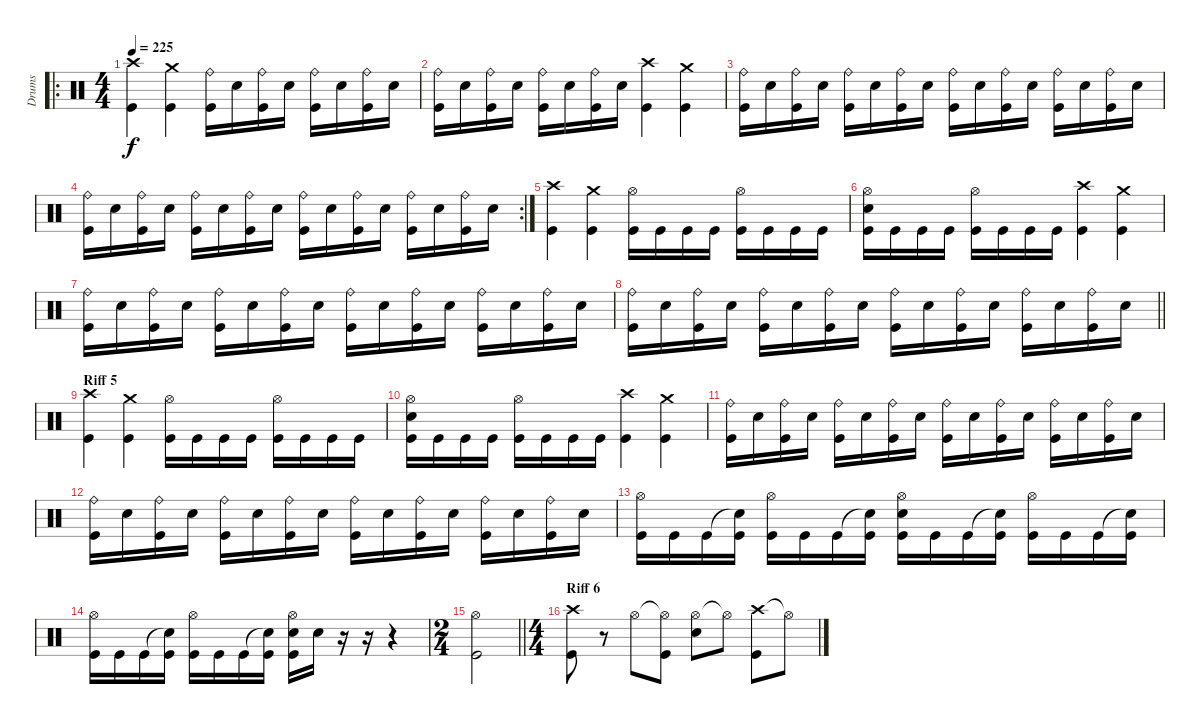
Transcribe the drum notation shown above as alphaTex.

\track ("Drums" "Drums") {instrument percussion}
\staff {score}
\articulation defaults
\ro
\ts (4 4)
\tempo 225
\clef neutral
\ks c
("Crash high (hit)" "Kick (hit)").4{dy f} ("Crash medium (hit)" "Kick (hit)").4 ("Ride (bell)" "Kick (hit)").16 "Electric Snare (hit)".16 ("Ride (bell)" "Kick (hit)").16 "Electric Snare (hit)".16 ("Ride (bell)" "Kick (hit)").16 "Electric Snare (hit)".16 ("Ride (bell)" "Kick (hit)").16 "Electric Snare (hit)".16 |
("Ride (bell)" "Kick (hit)").16 "Electric Snare (hit)".16 ("Ride (bell)" "Kick (hit)").16 "Electric Snare (hit)".16 ("Ride (bell)" "Kick (hit)").16 "Electric Snare (hit)".16 ("Ride (bell)" "Kick (hit)").16 "Electric Snare (hit)".16 ("Crash high (hit)" "Kick (hit)").4 ("Crash medium (hit)" "Kick (hit)").4 |
("Ride (bell)" "Kick (hit)").16 "Electric Snare (hit)".16 ("Ride (bell)" "Kick (hit)").16 "Electric Snare (hit)".16 ("Ride (bell)" "Kick (hit)").16 "Electric Snare (hit)".16 ("Ride (bell)" "Kick (hit)").16 "Electric Snare (hit)".16 ("Ride (bell)" "Kick (hit)").16 "Electric Snare (hit)".16 ("Ride (bell)" "Kick (hit)").16 "Electric Snare (hit)".16 ("Ride (bell)" "Kick (hit)").16 "Electric Snare (hit)".16 ("Ride (bell)" "Kick (hit)").16 "Electric Snare (hit)".16 |
\rc 2
("Ride (bell)" "Kick (hit)").16 "Electric Snare (hit)".16 ("Ride (bell)" "Kick (hit)").16 "Electric Snare (hit)".16 ("Ride (bell)" "Kick (hit)").16 "Electric Snare (hit)".16 ("Ride (bell)" "Kick (hit)").16 "Electric Snare (hit)".16 ("Ride (bell)" "Kick (hit)").16 "Electric Snare (hit)".16 ("Ride (bell)" "Kick (hit)").16 "Electric Snare (hit)".16 ("Ride (bell)" "Kick (hit)").16 "Electric Snare (hit)".16 ("Ride (bell)" "Kick (hit)").16 "Electric Snare (hit)".16 |
("Crash high (hit)" "Kick (hit)").4 ("Crash medium (hit)" "Kick (hit)").4 ("Hi-Hat (open)" "Kick (hit)").16 "Kick (hit)".16 "Kick (hit)".16 "Kick (hit)".16 ("Hi-Hat (open)" "Kick (hit)").16 "Kick (hit)".16 "Kick (hit)".16 "Kick (hit)".16 |
("Hi-Hat (open)" "Electric Snare (hit)" "Kick (hit)").16 "Kick (hit)".16 "Kick (hit)".16 "Kick (hit)".16 ("Hi-Hat (open)" "Kick (hit)").16 "Kick (hit)".16 "Kick (hit)".16 "Kick (hit)".16 ("Crash high (hit)" "Kick (hit)").4 ("Crash medium (hit)" "Kick (hit)").4 |
("Ride (bell)" "Kick (hit)").16 "Electric Snare (hit)".16 ("Ride (bell)" "Kick (hit)").16 "Electric Snare (hit)".16 ("Ride (bell)" "Kick (hit)").16 "Electric Snare (hit)".16 ("Ride (bell)" "Kick (hit)").16 "Electric Snare (hit)".16 ("Ride (bell)" "Kick (hit)").16 "Electric Snare (hit)".16 ("Ride (bell)" "Kick (hit)").16 "Electric Snare (hit)".16 ("Ride (bell)" "Kick (hit)").16 "Electric Snare (hit)".16 ("Ride (bell)" "Kick (hit)").16 "Electric Snare (hit)".16 |
\barLineRight lightlight
("Ride (bell)" "Kick (hit)").16 "Electric Snare (hit)".16 ("Ride (bell)" "Kick (hit)").16 "Electric Snare (hit)".16 ("Ride (bell)" "Kick (hit)").16 "Electric Snare (hit)".16 ("Ride (bell)" "Kick (hit)").16 "Electric Snare (hit)".16 ("Ride (bell)" "Kick (hit)").16 "Electric Snare (hit)".16 ("Ride (bell)" "Kick (hit)").16 "Electric Snare (hit)".16 ("Ride (bell)" "Kick (hit)").16 "Electric Snare (hit)".16 ("Ride (bell)" "Kick (hit)").16 "Electric Snare (hit)".16 |
\section ("" "Riff 5")
("Crash high (hit)" "Kick (hit)").4 ("Crash medium (hit)" "Kick (hit)").4 ("Hi-Hat (open)" "Kick (hit)").16 "Kick (hit)".16 "Kick (hit)".16 "Kick (hit)".16 ("Hi-Hat (open)" "Kick (hit)").16 "Kick (hit)".16 "Kick (hit)".16 "Kick (hit)".16 |
("Hi-Hat (open)" "Electric Snare (hit)" "Kick (hit)").16 "Kick (hit)".16 "Kick (hit)".16 "Kick (hit)".16 ("Hi-Hat (open)" "Kick (hit)").16 "Kick (hit)".16 "Kick (hit)".16 "Kick (hit)".16 ("Crash high (hit)" "Kick (hit)").4 ("Crash medium (hit)" "Kick (hit)").4 |
("Ride (bell)" "Kick (hit)").16 "Electric Snare (hit)".16 ("Ride (bell)" "Kick (hit)").16 "Electric Snare (hit)".16 ("Ride (bell)" "Kick (hit)").16 "Electric Snare (hit)".16 ("Ride (bell)" "Kick (hit)").16 "Electric Snare (hit)".16 ("Ride (bell)" "Kick (hit)").16 "Electric Snare (hit)".16 ("Ride (bell)" "Kick (hit)").16 "Electric Snare (hit)".16 ("Ride (bell)" "Kick (hit)").16 "Electric Snare (hit)".16 ("Ride (bell)" "Kick (hit)").16 "Electric Snare (hit)".16 |
("Ride (bell)" "Kick (hit)").16 "Electric Snare (hit)".16 ("Ride (bell)" "Kick (hit)").16 "Electric Snare (hit)".16 ("Ride (bell)" "Kick (hit)").16 "Electric Snare (hit)".16 ("Ride (bell)" "Kick (hit)").16 "Electric Snare (hit)".16 ("Ride (bell)" "Kick (hit)").16 "Electric Snare (hit)".16 ("Ride (bell)" "Kick (hit)").16 "Electric Snare (hit)".16 ("Ride (bell)" "Kick (hit)").16 "Electric Snare (hit)".16 ("Ride (bell)" "Kick (hit)").16 "Electric Snare (hit)".16 |
("Hi-Hat (open)" "Kick (hit)").16 "Kick (hit)".16 "Kick (hit)".16 ("Snare (hit)"{t} "Kick (hit)").16 ("Hi-Hat (open)" "Kick (hit)").16 "Kick (hit)".16 "Kick (hit)".16 ("Snare (hit)"{t} "Kick (hit)").16 ("Hi-Hat (open)" "Electric Snare (hit)" "Kick (hit)").16 "Kick (hit)".16 "Kick (hit)".16 ("Snare (hit)"{t} "Kick (hit)").16 ("Hi-Hat (open)" "Kick (hit)").16 "Kick (hit)".16 "Kick (hit)".16 ("Snare (hit)"{t} "Kick (hit)").16 |
("Hi-Hat (open)" "Kick (hit)").16 "Kick (hit)".16 "Kick (hit)".16 ("Snare (hit)"{t} "Kick (hit)").16 ("Hi-Hat (open)" "Kick (hit)").16 "Kick (hit)".16 "Kick (hit)".16 ("Snare (hit)"{t} "Kick (hit)").16 ("Hi-Hat (open)" "Electric Snare (hit)" "Kick (hit)").16 "Electric Snare (hit)".16 r.16 r.16 r.4 |
\ts (2 4)
\barLineRight lightlight
("Hi-Hat (open)" "Kick (hit)").2 |
\ts (4 4)
\section ("" "Riff 6")
("Crash high (hit)" "Kick (hit)").8 r.8 "Hi-Hat (open)".8 ("Hi-Hat (open)"{t} "Kick (hit)").8 ("Hi-Hat (open)" "Electric Snare (hit)").8 "Hi-Hat (open)"{t}.8 ("Crash high (hit)" "Kick (hit)").8 "Hi-Hat (open)"{t}.8
